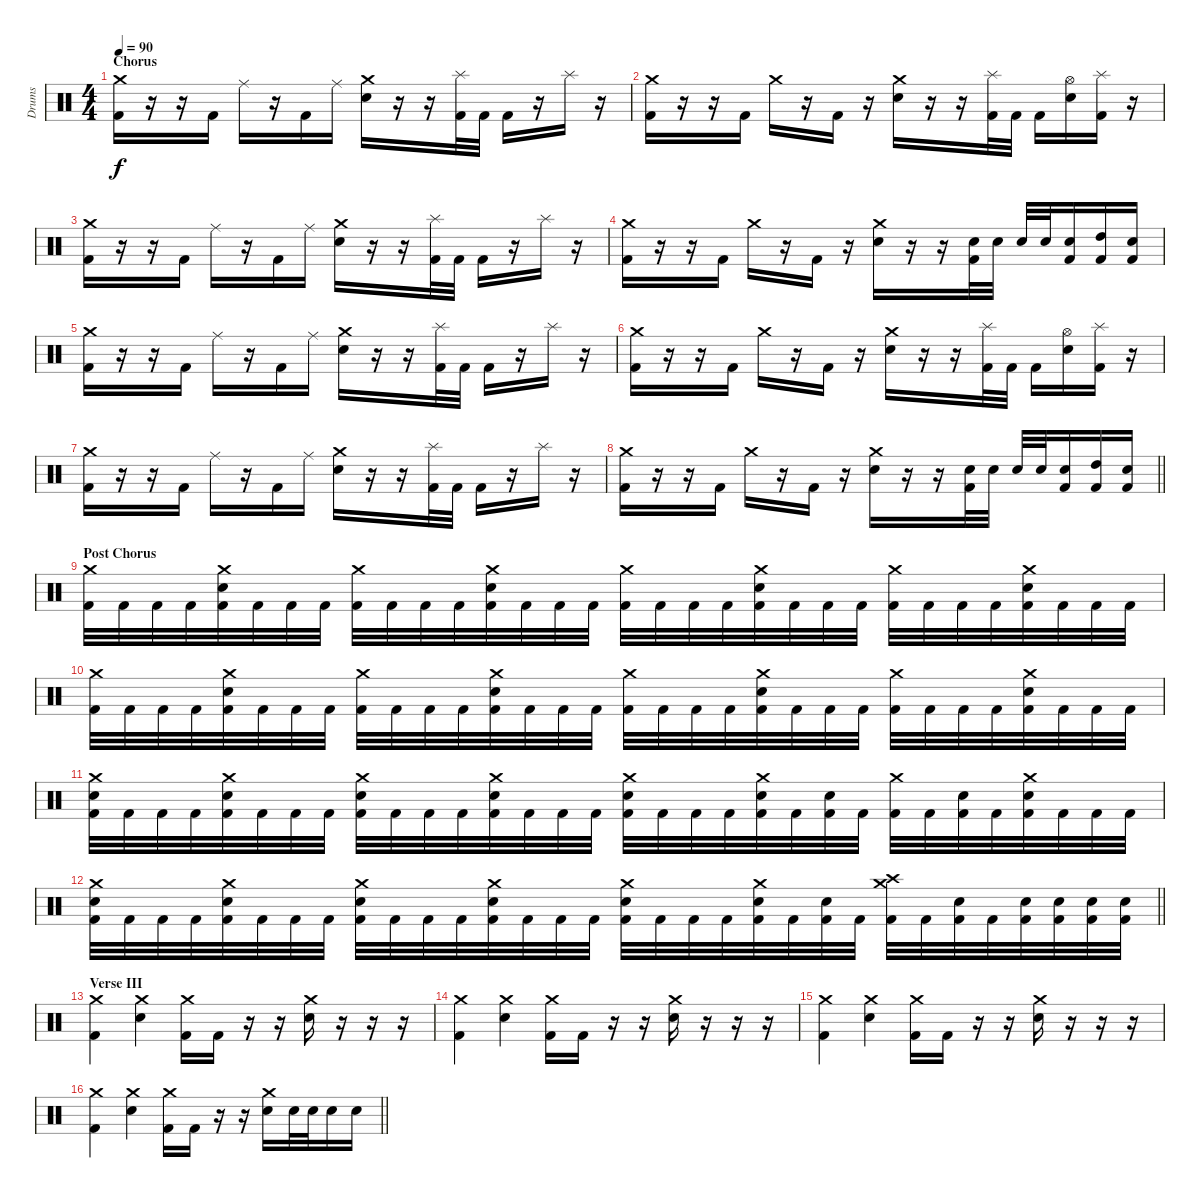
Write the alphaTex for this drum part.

\track ("Drums" "Drums") {instrument percussion}
\staff {score}
\articulation defaults
\ts (4 4)
\section ("" "Chorus")
\tempo 90
\clef neutral
\ks c
("Crash medium (hit)" "Kick (hit) 2").16{dy f} r.16 r.16 "Kick (hit) 2".16 "Ride (middle)".16 r.16 "Kick (hit) 2".16 "Ride (middle)".16 ("Crash medium (hit)" "Electric Snare (hit)").16 r.16 r.16 ("Splash (hit)" "Kick (hit) 2").32 "Kick (hit) 2".32 "Kick (hit) 2".16 r.16 "Splash (hit)".16 r.16 |
("Crash medium (hit)" "Kick (hit) 2").16 r.16 r.16 "Kick (hit) 2".16 "Crash medium (hit)".16 r.16 "Kick (hit) 2".16 r.16 ("Crash medium (hit)" "Electric Snare (hit)").16 r.16 r.16 ("Splash (hit)" "Kick (hit) 2").32 "Kick (hit) 2".32 "Kick (hit) 2".16 ("Hi-Hat (open)" "Electric Snare (hit)").16 ("Splash (hit)" "Kick (hit) 2").16 r.16 |
("Crash medium (hit)" "Kick (hit) 2").16 r.16 r.16 "Kick (hit) 2".16 "Ride (middle)".16 r.16 "Kick (hit) 2".16 "Ride (middle)".16 ("Crash medium (hit)" "Electric Snare (hit)").16 r.16 r.16 ("Splash (hit)" "Kick (hit) 2").32 "Kick (hit) 2".32 "Kick (hit) 2".16 r.16 "Splash (hit)".16 r.16 |
("Crash medium (hit)" "Kick (hit) 2").16 r.16 r.16 "Kick (hit) 2".16 "Crash medium (hit)".16 r.16 "Kick (hit) 2".16 r.16 ("Crash medium (hit)" "Electric Snare (hit)").16 r.16 r.16 ("Electric Snare (hit)" "Kick (hit) 2").32 "Electric Snare (hit)".32 "Electric Snare (hit)".32 "Electric Snare (hit)".32 ("Electric Snare (hit)" "Kick (hit) 2").16 ("High Tom (hit)" "Kick (hit) 2").16 ("Electric Snare (hit)" "Kick (hit) 2").16 |
("Crash medium (hit)" "Kick (hit) 2").16 r.16 r.16 "Kick (hit) 2".16 "Ride (middle)".16 r.16 "Kick (hit) 2".16 "Ride (middle)".16 ("Crash medium (hit)" "Electric Snare (hit)").16 r.16 r.16 ("Splash (hit)" "Kick (hit) 2").32 "Kick (hit) 2".32 "Kick (hit) 2".16 r.16 "Splash (hit)".16 r.16 |
("Crash medium (hit)" "Kick (hit) 2").16 r.16 r.16 "Kick (hit) 2".16 "Crash medium (hit)".16 r.16 "Kick (hit) 2".16 r.16 ("Crash medium (hit)" "Electric Snare (hit)").16 r.16 r.16 ("Splash (hit)" "Kick (hit) 2").32 "Kick (hit) 2".32 "Kick (hit) 2".16 ("Hi-Hat (open)" "Electric Snare (hit)").16 ("Splash (hit)" "Kick (hit) 2").16 r.16 |
("Crash medium (hit)" "Kick (hit) 2").16 r.16 r.16 "Kick (hit) 2".16 "Ride (middle)".16 r.16 "Kick (hit) 2".16 "Ride (middle)".16 ("Crash medium (hit)" "Electric Snare (hit)").16 r.16 r.16 ("Splash (hit)" "Kick (hit) 2").32 "Kick (hit) 2".32 "Kick (hit) 2".16 r.16 "Splash (hit)".16 r.16 |
\barLineRight lightlight
("Crash medium (hit)" "Kick (hit) 2").16 r.16 r.16 "Kick (hit) 2".16 "Crash medium (hit)".16 r.16 "Kick (hit) 2".16 r.16 ("Crash medium (hit)" "Electric Snare (hit)").16 r.16 r.16 ("Electric Snare (hit)" "Kick (hit) 2").32 "Electric Snare (hit)".32 "Electric Snare (hit)".32 "Electric Snare (hit)".32 ("Electric Snare (hit)" "Kick (hit) 2").16 ("High Tom (hit)" "Kick (hit) 2").16 ("Electric Snare (hit)" "Kick (hit) 2").16 |
\section ("" "Post Chorus")
("Crash medium (hit)" "Kick (hit) 2").32 "Kick (hit) 2".32 "Kick (hit) 2".32 "Kick (hit) 2".32 ("Crash medium (hit)" "Electric Snare (hit)" "Kick (hit) 2").32 "Kick (hit) 2".32 "Kick (hit) 2".32 "Kick (hit) 2".32 ("Crash medium (hit)" "Kick (hit) 2").32 "Kick (hit) 2".32 "Kick (hit) 2".32 "Kick (hit) 2".32 ("Crash medium (hit)" "Electric Snare (hit)" "Kick (hit) 2").32 "Kick (hit) 2".32 "Kick (hit) 2".32 "Kick (hit) 2".32 ("Crash medium (hit)" "Kick (hit) 2").32 "Kick (hit) 2".32 "Kick (hit) 2".32 "Kick (hit) 2".32 ("Crash medium (hit)" "Electric Snare (hit)" "Kick (hit) 2").32 "Kick (hit) 2".32 "Kick (hit) 2".32 "Kick (hit) 2".32 ("Crash medium (hit)" "Kick (hit) 2").32 "Kick (hit) 2".32 "Kick (hit) 2".32 "Kick (hit) 2".32 ("Crash medium (hit)" "Electric Snare (hit)" "Kick (hit) 2").32 "Kick (hit) 2".32 "Kick (hit) 2".32 "Kick (hit) 2".32 |
("Crash medium (hit)" "Kick (hit) 2").32 "Kick (hit) 2".32 "Kick (hit) 2".32 "Kick (hit) 2".32 ("Crash medium (hit)" "Electric Snare (hit)" "Kick (hit) 2").32 "Kick (hit) 2".32 "Kick (hit) 2".32 "Kick (hit) 2".32 ("Crash medium (hit)" "Kick (hit) 2").32 "Kick (hit) 2".32 "Kick (hit) 2".32 "Kick (hit) 2".32 ("Crash medium (hit)" "Electric Snare (hit)" "Kick (hit) 2").32 "Kick (hit) 2".32 "Kick (hit) 2".32 "Kick (hit) 2".32 ("Crash medium (hit)" "Kick (hit) 2").32 "Kick (hit) 2".32 "Kick (hit) 2".32 "Kick (hit) 2".32 ("Crash medium (hit)" "Electric Snare (hit)" "Kick (hit) 2").32 "Kick (hit) 2".32 "Kick (hit) 2".32 "Kick (hit) 2".32 ("Crash medium (hit)" "Kick (hit) 2").32 "Kick (hit) 2".32 "Kick (hit) 2".32 "Kick (hit) 2".32 ("Crash medium (hit)" "Electric Snare (hit)" "Kick (hit) 2").32 "Kick (hit) 2".32 "Kick (hit) 2".32 "Kick (hit) 2".32 |
("Crash medium (hit)" "Electric Snare (hit)" "Kick (hit) 2").32 "Kick (hit) 2".32 "Kick (hit) 2".32 "Kick (hit) 2".32 ("Crash medium (hit)" "Electric Snare (hit)" "Kick (hit) 2").32 "Kick (hit) 2".32 "Kick (hit) 2".32 "Kick (hit) 2".32 ("Crash medium (hit)" "Electric Snare (hit)" "Kick (hit) 2").32 "Kick (hit) 2".32 "Kick (hit) 2".32 "Kick (hit) 2".32 ("Crash medium (hit)" "Electric Snare (hit)" "Kick (hit) 2").32 "Kick (hit) 2".32 "Kick (hit) 2".32 "Kick (hit) 2".32 ("Crash medium (hit)" "Electric Snare (hit)" "Kick (hit) 2").32 "Kick (hit) 2".32 "Kick (hit) 2".32 "Kick (hit) 2".32 ("Crash medium (hit)" "Electric Snare (hit)" "Kick (hit) 2").32 "Kick (hit) 2".32 ("Electric Snare (hit)" "Kick (hit) 2").32 "Kick (hit) 2".32 ("Crash medium (hit)" "Kick (hit) 2").32 "Kick (hit) 2".32 ("Electric Snare (hit)" "Kick (hit) 2").32 "Kick (hit) 2".32 ("Crash medium (hit)" "Electric Snare (hit)" "Kick (hit) 2").32 "Kick (hit) 2".32 "Kick (hit) 2".32 "Kick (hit) 2".32 |
\barLineRight lightlight
("Crash medium (hit)" "Electric Snare (hit)" "Kick (hit) 2").32 "Kick (hit) 2".32 "Kick (hit) 2".32 "Kick (hit) 2".32 ("Crash medium (hit)" "Electric Snare (hit)" "Kick (hit) 2").32 "Kick (hit) 2".32 "Kick (hit) 2".32 "Kick (hit) 2".32 ("Crash medium (hit)" "Electric Snare (hit)" "Kick (hit) 2").32 "Kick (hit) 2".32 "Kick (hit) 2".32 "Kick (hit) 2".32 ("Crash medium (hit)" "Electric Snare (hit)" "Kick (hit) 2").32 "Kick (hit) 2".32 "Kick (hit) 2".32 "Kick (hit) 2".32 ("Crash medium (hit)" "Electric Snare (hit)" "Kick (hit) 2").32 "Kick (hit) 2".32 "Kick (hit) 2".32 "Kick (hit) 2".32 ("Crash medium (hit)" "Electric Snare (hit)" "Kick (hit) 2").32 "Kick (hit) 2".32 ("Electric Snare (hit)" "Kick (hit) 2").32 "Kick (hit) 2".32 ("Crash medium (hit)" "Crash high (hit)" "Kick (hit) 2").32 "Kick (hit) 2".32 ("Electric Snare (hit)" "Kick (hit) 2").32 "Kick (hit) 2".32 ("Electric Snare (hit)" "Kick (hit) 2").32 ("Electric Snare (hit)" "Kick (hit) 2").32 ("Electric Snare (hit)" "Kick (hit) 2").32 ("Electric Snare (hit)" "Kick (hit) 2").32 |
\section ("" "Verse III")
("Crash medium (hit)" "Kick (hit) 2").4 ("Crash medium (hit)" "Electric Snare (hit)").4 ("Crash medium (hit)" "Kick (hit) 2").16 "Kick (hit) 2".16 r.16 r.16 ("Crash medium (hit)" "Electric Snare (hit)").16 r.16 r.16 r.16 |
("Crash medium (hit)" "Kick (hit) 2").4 ("Crash medium (hit)" "Electric Snare (hit)").4 ("Crash medium (hit)" "Kick (hit) 2").16 "Kick (hit) 2".16 r.16 r.16 ("Crash medium (hit)" "Electric Snare (hit)").16 r.16 r.16 r.16 |
("Crash medium (hit)" "Kick (hit) 2").4 ("Crash medium (hit)" "Electric Snare (hit)").4 ("Crash medium (hit)" "Kick (hit) 2").16 "Kick (hit) 2".16 r.16 r.16 ("Crash medium (hit)" "Electric Snare (hit)").16 r.16 r.16 r.16 |
\barLineRight lightlight
("Crash medium (hit)" "Kick (hit) 2").4 ("Crash medium (hit)" "Electric Snare (hit)").4 ("Crash medium (hit)" "Kick (hit) 2").16 "Kick (hit) 2".16 r.16 r.16 ("Crash medium (hit)" "Electric Snare (hit)").16 "Electric Snare (hit)".32 "Electric Snare (hit)".32 "Electric Snare (hit)".16 "Electric Snare (hit)".16
